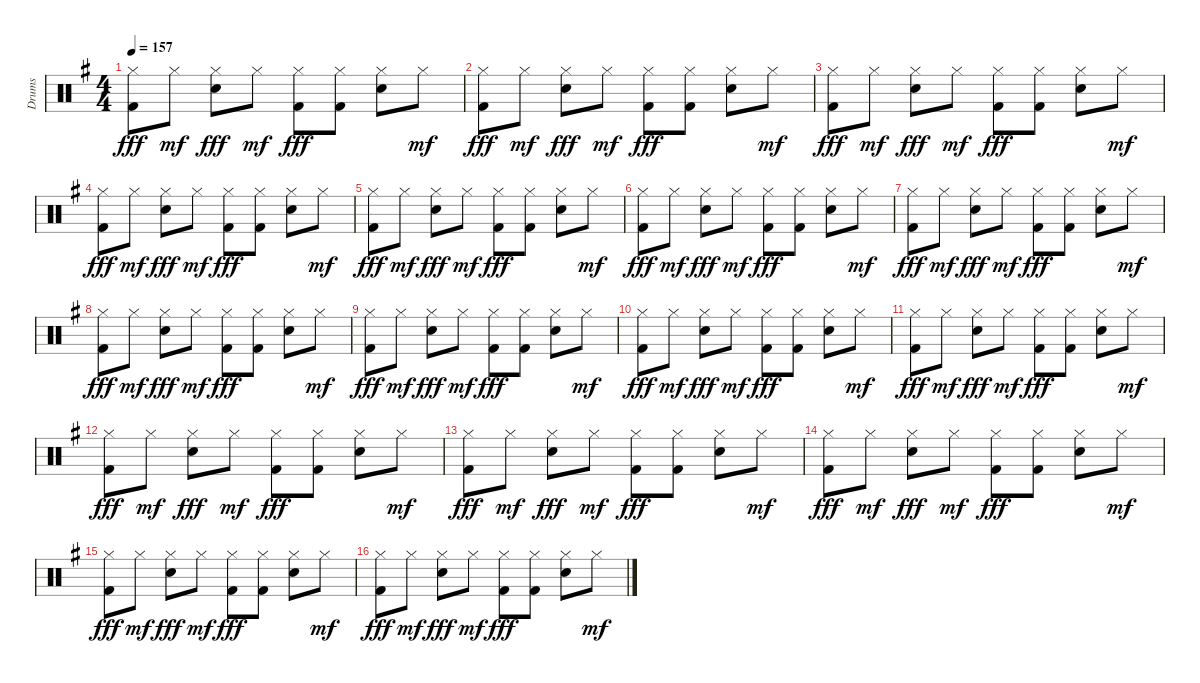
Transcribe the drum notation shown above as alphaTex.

\track ("Drums" "Drums") {instrument percussion}
\staff {score}
\articulation defaults
\ts (4 4)
\tempo 157
\clef neutral
\ks g
("Hi-Hat (closed)" "Kick (hit) 2").8{dy fff} "Hi-Hat (closed)".8{dy mf} ("Electric Snare (hit)" "Hi-Hat (closed)").8{dy fff} "Hi-Hat (closed)".8{dy mf} ("Hi-Hat (closed)" "Kick (hit) 2").8{dy fff} ("Hi-Hat (closed)" "Kick (hit) 2").8 ("Electric Snare (hit)" "Hi-Hat (closed)").8 "Hi-Hat (closed)".8{dy mf} |
("Hi-Hat (closed)" "Kick (hit) 2").8{dy fff} "Hi-Hat (closed)".8{dy mf} ("Electric Snare (hit)" "Hi-Hat (closed)").8{dy fff} "Hi-Hat (closed)".8{dy mf} ("Hi-Hat (closed)" "Kick (hit) 2").8{dy fff} ("Hi-Hat (closed)" "Kick (hit) 2").8 ("Electric Snare (hit)" "Hi-Hat (closed)").8 "Hi-Hat (closed)".8{dy mf} |
("Hi-Hat (closed)" "Kick (hit) 2").8{dy fff} "Hi-Hat (closed)".8{dy mf} ("Electric Snare (hit)" "Hi-Hat (closed)").8{dy fff} "Hi-Hat (closed)".8{dy mf} ("Hi-Hat (closed)" "Kick (hit) 2").8{dy fff} ("Hi-Hat (closed)" "Kick (hit) 2").8 ("Electric Snare (hit)" "Hi-Hat (closed)").8 "Hi-Hat (closed)".8{dy mf} |
("Hi-Hat (closed)" "Kick (hit) 2").8{dy fff} "Hi-Hat (closed)".8{dy mf} ("Electric Snare (hit)" "Hi-Hat (closed)").8{dy fff} "Hi-Hat (closed)".8{dy mf} ("Hi-Hat (closed)" "Kick (hit) 2").8{dy fff} ("Hi-Hat (closed)" "Kick (hit) 2").8 ("Electric Snare (hit)" "Hi-Hat (closed)").8 "Hi-Hat (closed)".8{dy mf} |
("Hi-Hat (closed)" "Kick (hit) 2").8{dy fff} "Hi-Hat (closed)".8{dy mf} ("Electric Snare (hit)" "Hi-Hat (closed)").8{dy fff} "Hi-Hat (closed)".8{dy mf} ("Hi-Hat (closed)" "Kick (hit) 2").8{dy fff} ("Hi-Hat (closed)" "Kick (hit) 2").8 ("Electric Snare (hit)" "Hi-Hat (closed)").8 "Hi-Hat (closed)".8{dy mf} |
("Hi-Hat (closed)" "Kick (hit) 2").8{dy fff} "Hi-Hat (closed)".8{dy mf} ("Electric Snare (hit)" "Hi-Hat (closed)").8{dy fff} "Hi-Hat (closed)".8{dy mf} ("Hi-Hat (closed)" "Kick (hit) 2").8{dy fff} ("Hi-Hat (closed)" "Kick (hit) 2").8 ("Electric Snare (hit)" "Hi-Hat (closed)").8 "Hi-Hat (closed)".8{dy mf} |
("Hi-Hat (closed)" "Kick (hit) 2").8{dy fff} "Hi-Hat (closed)".8{dy mf} ("Electric Snare (hit)" "Hi-Hat (closed)").8{dy fff} "Hi-Hat (closed)".8{dy mf} ("Hi-Hat (closed)" "Kick (hit) 2").8{dy fff} ("Hi-Hat (closed)" "Kick (hit) 2").8 ("Electric Snare (hit)" "Hi-Hat (closed)").8 "Hi-Hat (closed)".8{dy mf} |
("Hi-Hat (closed)" "Kick (hit) 2").8{dy fff} "Hi-Hat (closed)".8{dy mf} ("Electric Snare (hit)" "Hi-Hat (closed)").8{dy fff} "Hi-Hat (closed)".8{dy mf} ("Hi-Hat (closed)" "Kick (hit) 2").8{dy fff} ("Hi-Hat (closed)" "Kick (hit) 2").8 ("Electric Snare (hit)" "Hi-Hat (closed)").8 "Hi-Hat (closed)".8{dy mf} |
("Hi-Hat (closed)" "Kick (hit) 2").8{dy fff} "Hi-Hat (closed)".8{dy mf} ("Electric Snare (hit)" "Hi-Hat (closed)").8{dy fff} "Hi-Hat (closed)".8{dy mf} ("Hi-Hat (closed)" "Kick (hit) 2").8{dy fff} ("Hi-Hat (closed)" "Kick (hit) 2").8 ("Electric Snare (hit)" "Hi-Hat (closed)").8 "Hi-Hat (closed)".8{dy mf} |
("Hi-Hat (closed)" "Kick (hit) 2").8{dy fff} "Hi-Hat (closed)".8{dy mf} ("Electric Snare (hit)" "Hi-Hat (closed)").8{dy fff} "Hi-Hat (closed)".8{dy mf} ("Hi-Hat (closed)" "Kick (hit) 2").8{dy fff} ("Hi-Hat (closed)" "Kick (hit) 2").8 ("Electric Snare (hit)" "Hi-Hat (closed)").8 "Hi-Hat (closed)".8{dy mf} |
("Hi-Hat (closed)" "Kick (hit) 2").8{dy fff} "Hi-Hat (closed)".8{dy mf} ("Electric Snare (hit)" "Hi-Hat (closed)").8{dy fff} "Hi-Hat (closed)".8{dy mf} ("Hi-Hat (closed)" "Kick (hit) 2").8{dy fff} ("Hi-Hat (closed)" "Kick (hit) 2").8 ("Electric Snare (hit)" "Hi-Hat (closed)").8 "Hi-Hat (closed)".8{dy mf} |
("Hi-Hat (closed)" "Kick (hit) 2").8{dy fff} "Hi-Hat (closed)".8{dy mf} ("Electric Snare (hit)" "Hi-Hat (closed)").8{dy fff} "Hi-Hat (closed)".8{dy mf} ("Hi-Hat (closed)" "Kick (hit) 2").8{dy fff} ("Hi-Hat (closed)" "Kick (hit) 2").8 ("Electric Snare (hit)" "Hi-Hat (closed)").8 "Hi-Hat (closed)".8{dy mf} |
("Hi-Hat (closed)" "Kick (hit) 2").8{dy fff} "Hi-Hat (closed)".8{dy mf} ("Electric Snare (hit)" "Hi-Hat (closed)").8{dy fff} "Hi-Hat (closed)".8{dy mf} ("Hi-Hat (closed)" "Kick (hit) 2").8{dy fff} ("Hi-Hat (closed)" "Kick (hit) 2").8 ("Electric Snare (hit)" "Hi-Hat (closed)").8 "Hi-Hat (closed)".8{dy mf} |
("Hi-Hat (closed)" "Kick (hit) 2").8{dy fff} "Hi-Hat (closed)".8{dy mf} ("Electric Snare (hit)" "Hi-Hat (closed)").8{dy fff} "Hi-Hat (closed)".8{dy mf} ("Hi-Hat (closed)" "Kick (hit) 2").8{dy fff} ("Hi-Hat (closed)" "Kick (hit) 2").8 ("Electric Snare (hit)" "Hi-Hat (closed)").8 "Hi-Hat (closed)".8{dy mf} |
("Hi-Hat (closed)" "Kick (hit) 2").8{dy fff} "Hi-Hat (closed)".8{dy mf} ("Electric Snare (hit)" "Hi-Hat (closed)").8{dy fff} "Hi-Hat (closed)".8{dy mf} ("Hi-Hat (closed)" "Kick (hit) 2").8{dy fff} ("Hi-Hat (closed)" "Kick (hit) 2").8 ("Electric Snare (hit)" "Hi-Hat (closed)").8 "Hi-Hat (closed)".8{dy mf} |
("Hi-Hat (closed)" "Kick (hit) 2").8{dy fff} "Hi-Hat (closed)".8{dy mf} ("Electric Snare (hit)" "Hi-Hat (closed)").8{dy fff} "Hi-Hat (closed)".8{dy mf} ("Hi-Hat (closed)" "Kick (hit) 2").8{dy fff} ("Hi-Hat (closed)" "Kick (hit) 2").8 ("Electric Snare (hit)" "Hi-Hat (closed)").8 "Hi-Hat (closed)".8{dy mf}
